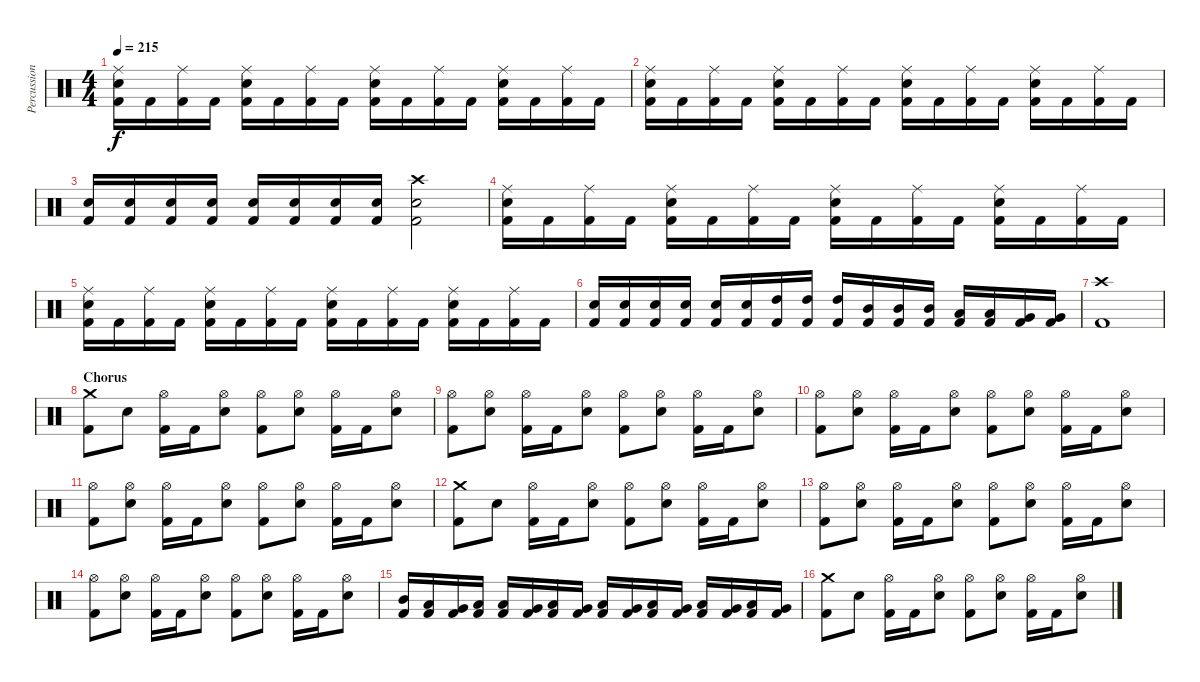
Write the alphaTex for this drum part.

\track ("Percussion" "Percussion") {instrument percussion}
\staff {score}
\articulation defaults
\ts (4 4)
\tempo 215
\clef neutral
\ks c
("Ride (middle)" "Snare (hit) 2" "Kick (hit) 2").16{dy f} "Kick (hit) 2".16 ("Ride (middle)" "Kick (hit) 2").16 "Kick (hit) 2".16 ("Ride (middle)" "Snare (hit) 2" "Kick (hit) 2").16 "Kick (hit) 2".16 ("Ride (middle)" "Kick (hit) 2").16 "Kick (hit) 2".16 ("Ride (middle)" "Snare (hit) 2" "Kick (hit) 2").16 "Kick (hit) 2".16 ("Ride (middle)" "Kick (hit) 2").16 "Kick (hit) 2".16 ("Ride (middle)" "Snare (hit) 2" "Kick (hit) 2").16 "Kick (hit) 2".16 ("Ride (middle)" "Kick (hit) 2").16 "Kick (hit) 2".16 |
("Ride (middle)" "Snare (hit) 2" "Kick (hit) 2").16 "Kick (hit) 2".16 ("Ride (middle)" "Kick (hit) 2").16 "Kick (hit) 2".16 ("Ride (middle)" "Snare (hit) 2" "Kick (hit) 2").16 "Kick (hit) 2".16 ("Ride (middle)" "Kick (hit) 2").16 "Kick (hit) 2".16 ("Ride (middle)" "Snare (hit) 2" "Kick (hit) 2").16 "Kick (hit) 2".16 ("Ride (middle)" "Kick (hit) 2").16 "Kick (hit) 2".16 ("Ride (middle)" "Snare (hit) 2" "Kick (hit) 2").16 "Kick (hit) 2".16 ("Ride (middle)" "Kick (hit) 2").16 "Kick (hit) 2".16 |
("Snare (hit) 2" "Kick (hit) 2").16 ("Snare (hit) 2" "Kick (hit) 2").16 ("Snare (hit) 2" "Kick (hit) 2").16 ("Snare (hit) 2" "Kick (hit) 2").16 ("Snare (hit) 2" "Kick (hit) 2").16 ("Snare (hit) 2" "Kick (hit) 2").16 ("Snare (hit) 2" "Kick (hit) 2").16 ("Snare (hit) 2" "Kick (hit) 2").16 ("Crash high (hit)" "Snare (hit) 2" "Kick (hit) 2").2 |
("Ride (middle)" "Snare (hit) 2" "Kick (hit) 2").16 "Kick (hit) 2".16 ("Ride (middle)" "Kick (hit) 2").16 "Kick (hit) 2".16 ("Ride (middle)" "Snare (hit) 2" "Kick (hit) 2").16 "Kick (hit) 2".16 ("Ride (middle)" "Kick (hit) 2").16 "Kick (hit) 2".16 ("Ride (middle)" "Snare (hit) 2" "Kick (hit) 2").16 "Kick (hit) 2".16 ("Ride (middle)" "Kick (hit) 2").16 "Kick (hit) 2".16 ("Ride (middle)" "Snare (hit) 2" "Kick (hit) 2").16 "Kick (hit) 2".16 ("Ride (middle)" "Kick (hit) 2").16 "Kick (hit) 2".16 |
("Ride (middle)" "Snare (hit) 2" "Kick (hit) 2").16 "Kick (hit) 2".16 ("Ride (middle)" "Kick (hit) 2").16 "Kick (hit) 2".16 ("Ride (middle)" "Snare (hit) 2" "Kick (hit) 2").16 "Kick (hit) 2".16 ("Ride (middle)" "Kick (hit) 2").16 "Kick (hit) 2".16 ("Ride (middle)" "Snare (hit) 2" "Kick (hit) 2").16 "Kick (hit) 2".16 ("Ride (middle)" "Kick (hit) 2").16 "Kick (hit) 2".16 ("Ride (middle)" "Snare (hit) 2" "Kick (hit) 2").16 "Kick (hit) 2".16 ("Ride (middle)" "Kick (hit) 2").16 "Kick (hit) 2".16 |
("Snare (hit) 2" "Kick (hit) 2").16 ("Snare (hit) 2" "Kick (hit) 2").16 ("Snare (hit) 2" "Kick (hit) 2").16 ("Snare (hit) 2" "Kick (hit) 2").16 ("Snare (hit) 2" "Kick (hit) 2").16 ("Snare (hit) 2" "Kick (hit) 2").16 ("High Tom (hit)" "Kick (hit) 2").16 ("High Tom (hit)" "Kick (hit) 2").16 ("High Tom (hit)" "Kick (hit) 2").16 ("Mid Tom (hit)" "Kick (hit) 2").16 ("Mid Tom (hit)" "Kick (hit) 2").16 ("Mid Tom (hit)" "Kick (hit) 2").16 ("Low Tom (hit)" "Kick (hit) 2").16 ("Low Tom (hit)" "Kick (hit) 2").16 ("Very Low Tom (hit)" "Kick (hit) 2").16 ("Very Low Tom (hit)" "Kick (hit) 2").16 |
("Crash high (hit)" "Kick (hit) 2").1 |
\section ("" "Chorus")
("Crash medium (hit)" "Kick (hit) 2").8 "Snare (hit) 2".8 ("Hi-Hat (open)" "Kick (hit) 2").16 "Kick (hit) 2".16 ("Hi-Hat (open)" "Snare (hit) 2").8 ("Hi-Hat (open)" "Kick (hit) 2").8 ("Hi-Hat (open)" "Snare (hit) 2").8 ("Hi-Hat (open)" "Kick (hit) 2").16 "Kick (hit) 2".16 ("Hi-Hat (open)" "Snare (hit) 2").8 |
("Hi-Hat (open)" "Kick (hit) 2").8 ("Hi-Hat (open)" "Snare (hit) 2").8 ("Hi-Hat (open)" "Kick (hit) 2").16 "Kick (hit) 2".16 ("Hi-Hat (open)" "Snare (hit) 2").8 ("Hi-Hat (open)" "Kick (hit) 2").8 ("Hi-Hat (open)" "Snare (hit) 2").8 ("Hi-Hat (open)" "Kick (hit) 2").16 "Kick (hit) 2".16 ("Hi-Hat (open)" "Snare (hit) 2").8 |
("Hi-Hat (open)" "Kick (hit) 2").8 ("Hi-Hat (open)" "Snare (hit) 2").8 ("Hi-Hat (open)" "Kick (hit) 2").16 "Kick (hit) 2".16 ("Hi-Hat (open)" "Snare (hit) 2").8 ("Hi-Hat (open)" "Kick (hit) 2").8 ("Hi-Hat (open)" "Snare (hit) 2").8 ("Hi-Hat (open)" "Kick (hit) 2").16 "Kick (hit) 2".16 ("Hi-Hat (open)" "Snare (hit) 2").8 |
("Hi-Hat (open)" "Kick (hit) 2").8 ("Hi-Hat (open)" "Snare (hit) 2").8 ("Hi-Hat (open)" "Kick (hit) 2").16 "Kick (hit) 2".16 ("Hi-Hat (open)" "Snare (hit) 2").8 ("Hi-Hat (open)" "Kick (hit) 2").8 ("Hi-Hat (open)" "Snare (hit) 2").8 ("Hi-Hat (open)" "Kick (hit) 2").16 "Kick (hit) 2".16 ("Hi-Hat (open)" "Snare (hit) 2").8 |
("Crash medium (hit)" "Kick (hit) 2").8 "Snare (hit) 2".8 ("Hi-Hat (open)" "Kick (hit) 2").16 "Kick (hit) 2".16 ("Hi-Hat (open)" "Snare (hit) 2").8 ("Hi-Hat (open)" "Kick (hit) 2").8 ("Hi-Hat (open)" "Snare (hit) 2").8 ("Hi-Hat (open)" "Kick (hit) 2").16 "Kick (hit) 2".16 ("Hi-Hat (open)" "Snare (hit) 2").8 |
("Hi-Hat (open)" "Kick (hit) 2").8 ("Hi-Hat (open)" "Snare (hit) 2").8 ("Hi-Hat (open)" "Kick (hit) 2").16 "Kick (hit) 2".16 ("Hi-Hat (open)" "Snare (hit) 2").8 ("Hi-Hat (open)" "Kick (hit) 2").8 ("Hi-Hat (open)" "Snare (hit) 2").8 ("Hi-Hat (open)" "Kick (hit) 2").16 "Kick (hit) 2".16 ("Hi-Hat (open)" "Snare (hit) 2").8 |
("Hi-Hat (open)" "Kick (hit) 2").8 ("Hi-Hat (open)" "Snare (hit) 2").8 ("Hi-Hat (open)" "Kick (hit) 2").16 "Kick (hit) 2".16 ("Hi-Hat (open)" "Snare (hit) 2").8 ("Hi-Hat (open)" "Kick (hit) 2").8 ("Hi-Hat (open)" "Snare (hit) 2").8 ("Hi-Hat (open)" "Kick (hit) 2").16 "Kick (hit) 2".16 ("Hi-Hat (open)" "Snare (hit) 2").8 |
("Mid Tom (hit)" "Kick (hit) 2").16 ("Low Tom (hit)" "Kick (hit) 2").16 ("Very Low Tom (hit)" "Kick (hit) 2").16 ("Low Floor Tom (hit)" "Kick (hit) 2").16 ("Low Tom (hit)" "Kick (hit) 2").16 ("Very Low Tom (hit)" "Kick (hit) 2").16 ("Low Floor Tom (hit)" "Kick (hit) 2").16 ("Very Low Tom (hit)" "Kick (hit) 2").16 ("Low Tom (hit)" "Kick (hit) 2").16 ("Very Low Tom (hit)" "Kick (hit) 2").16 ("Low Floor Tom (hit)" "Kick (hit) 2").16 ("Very Low Tom (hit)" "Kick (hit) 2").16 ("Low Tom (hit)" "Kick (hit) 2").16 ("Very Low Tom (hit)" "Kick (hit) 2").16 ("Low Floor Tom (hit)" "Kick (hit) 2").16 ("Very Low Tom (hit)" "Kick (hit) 2").16 |
("Crash medium (hit)" "Kick (hit) 2").8 "Snare (hit) 2".8 ("Hi-Hat (open)" "Kick (hit) 2").16 "Kick (hit) 2".16 ("Hi-Hat (open)" "Snare (hit) 2").8 ("Hi-Hat (open)" "Kick (hit) 2").8 ("Hi-Hat (open)" "Snare (hit) 2").8 ("Hi-Hat (open)" "Kick (hit) 2").16 "Kick (hit) 2".16 ("Hi-Hat (open)" "Snare (hit) 2").8
